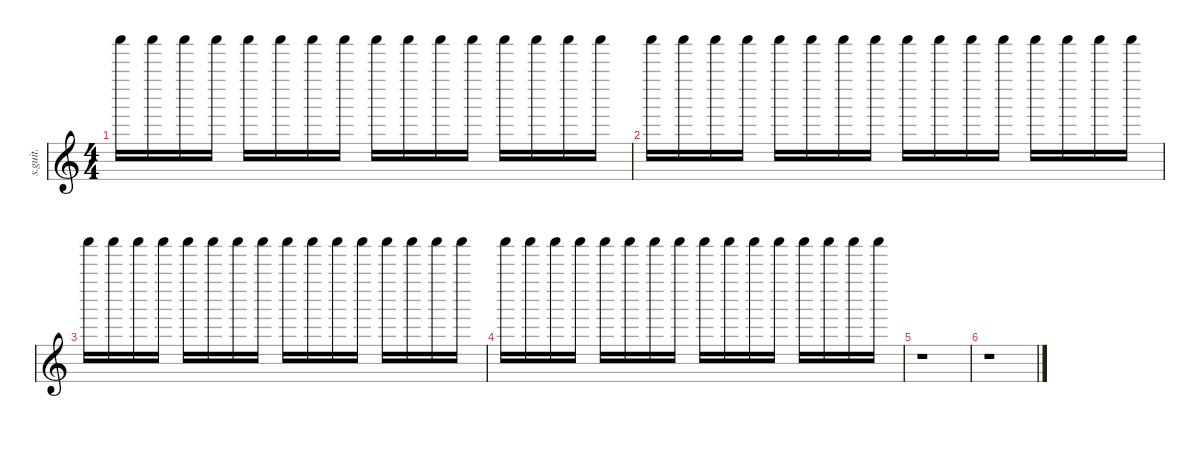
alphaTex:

\defaultSystemsLayout 4
\hideDynamics
\bracketExtendMode nobrackets
\track ("Shaker" "s.guit.") {instrument percussion}
\staff {score}
\articulation defaults
\ts (4 4)
\tempo (69 hide)
\clef g2
\ks c "Shaker (hit)".16{lyrics (0 "") lyrics (1 "") lyrics (2 "") lyrics (3 "") lyrics (4 "") dy mp} "Shaker (hit)".16{lyrics (0 "") lyrics (1 "") lyrics (2 "") lyrics (3 "") lyrics (4 "")} "Shaker (hit)".16{lyrics (0 "") lyrics (1 "") lyrics (2 "") lyrics (3 "") lyrics (4 "")} "Shaker (hit)".16{lyrics (0 "") lyrics (1 "") lyrics (2 "") lyrics (3 "") lyrics (4 "")} "Shaker (hit)".16{lyrics (0 "") lyrics (1 "") lyrics (2 "") lyrics (3 "") lyrics (4 "")} "Shaker (hit)".16{lyrics (0 "") lyrics (1 "") lyrics (2 "") lyrics (3 "") lyrics (4 "")} "Shaker (hit)".16{lyrics (0 "") lyrics (1 "") lyrics (2 "") lyrics (3 "") lyrics (4 "")} "Shaker (hit)".16{lyrics (0 "") lyrics (1 "") lyrics (2 "") lyrics (3 "") lyrics (4 "")} "Shaker (hit)".16{lyrics (0 "") lyrics (1 "") lyrics (2 "") lyrics (3 "") lyrics (4 "")} "Shaker (hit)".16{lyrics (0 "") lyrics (1 "") lyrics (2 "") lyrics (3 "") lyrics (4 "")} "Shaker (hit)".16{lyrics (0 "") lyrics (1 "") lyrics (2 "") lyrics (3 "") lyrics (4 "")} "Shaker (hit)".16{lyrics (0 "") lyrics (1 "") lyrics (2 "") lyrics (3 "") lyrics (4 "")} "Shaker (hit)".16{lyrics (0 "") lyrics (1 "") lyrics (2 "") lyrics (3 "") lyrics (4 "")} "Shaker (hit)".16{lyrics (0 "") lyrics (1 "") lyrics (2 "") lyrics (3 "") lyrics (4 "")} "Shaker (hit)".16{lyrics (0 "") lyrics (1 "") lyrics (2 "") lyrics (3 "") lyrics (4 "")} "Shaker (hit)".16{lyrics (0 "") lyrics (1 "") lyrics (2 "") lyrics (3 "") lyrics (4 "")}
|
"Shaker (hit)".16{lyrics (0 "") lyrics (1 "") lyrics (2 "") lyrics (3 "") lyrics (4 "")} "Shaker (hit)".16{lyrics (0 "") lyrics (1 "") lyrics (2 "") lyrics (3 "") lyrics (4 "")} "Shaker (hit)".16{lyrics (0 "") lyrics (1 "") lyrics (2 "") lyrics (3 "") lyrics (4 "")} "Shaker (hit)".16{lyrics (0 "") lyrics (1 "") lyrics (2 "") lyrics (3 "") lyrics (4 "")} "Shaker (hit)".16{lyrics (0 "") lyrics (1 "") lyrics (2 "") lyrics (3 "") lyrics (4 "")} "Shaker (hit)".16{lyrics (0 "") lyrics (1 "") lyrics (2 "") lyrics (3 "") lyrics (4 "")} "Shaker (hit)".16{lyrics (0 "") lyrics (1 "") lyrics (2 "") lyrics (3 "") lyrics (4 "")} "Shaker (hit)".16{lyrics (0 "") lyrics (1 "") lyrics (2 "") lyrics (3 "") lyrics (4 "")} "Shaker (hit)".16{lyrics (0 "") lyrics (1 "") lyrics (2 "") lyrics (3 "") lyrics (4 "")} "Shaker (hit)".16{lyrics (0 "") lyrics (1 "") lyrics (2 "") lyrics (3 "") lyrics (4 "")} "Shaker (hit)".16{lyrics (0 "") lyrics (1 "") lyrics (2 "") lyrics (3 "") lyrics (4 "")} "Shaker (hit)".16{lyrics (0 "") lyrics (1 "") lyrics (2 "") lyrics (3 "") lyrics (4 "")} "Shaker (hit)".16{lyrics (0 "") lyrics (1 "") lyrics (2 "") lyrics (3 "") lyrics (4 "")} "Shaker (hit)".16{lyrics (0 "") lyrics (1 "") lyrics (2 "") lyrics (3 "") lyrics (4 "")} "Shaker (hit)".16{lyrics (0 "") lyrics (1 "") lyrics (2 "") lyrics (3 "") lyrics (4 "")} "Shaker (hit)".16{lyrics (0 "") lyrics (1 "") lyrics (2 "") lyrics (3 "") lyrics (4 "")} |
"Shaker (hit)".16{lyrics (0 "") lyrics (1 "") lyrics (2 "") lyrics (3 "") lyrics (4 "")} "Shaker (hit)".16{lyrics (0 "") lyrics (1 "") lyrics (2 "") lyrics (3 "") lyrics (4 "")} "Shaker (hit)".16{lyrics (0 "") lyrics (1 "") lyrics (2 "") lyrics (3 "") lyrics (4 "")} "Shaker (hit)".16{lyrics (0 "") lyrics (1 "") lyrics (2 "") lyrics (3 "") lyrics (4 "")} "Shaker (hit)".16{lyrics (0 "") lyrics (1 "") lyrics (2 "") lyrics (3 "") lyrics (4 "")} "Shaker (hit)".16{lyrics (0 "") lyrics (1 "") lyrics (2 "") lyrics (3 "") lyrics (4 "")} "Shaker (hit)".16{lyrics (0 "") lyrics (1 "") lyrics (2 "") lyrics (3 "") lyrics (4 "")} "Shaker (hit)".16{lyrics (0 "") lyrics (1 "") lyrics (2 "") lyrics (3 "") lyrics (4 "")} "Shaker (hit)".16{lyrics (0 "") lyrics (1 "") lyrics (2 "") lyrics (3 "") lyrics (4 "")} "Shaker (hit)".16{lyrics (0 "") lyrics (1 "") lyrics (2 "") lyrics (3 "") lyrics (4 "")} "Shaker (hit)".16{lyrics (0 "") lyrics (1 "") lyrics (2 "") lyrics (3 "") lyrics (4 "")} "Shaker (hit)".16{lyrics (0 "") lyrics (1 "") lyrics (2 "") lyrics (3 "") lyrics (4 "")} "Shaker (hit)".16{lyrics (0 "") lyrics (1 "") lyrics (2 "") lyrics (3 "") lyrics (4 "")} "Shaker (hit)".16{lyrics (0 "") lyrics (1 "") lyrics (2 "") lyrics (3 "") lyrics (4 "")} "Shaker (hit)".16{lyrics (0 "") lyrics (1 "") lyrics (2 "") lyrics (3 "") lyrics (4 "")} "Shaker (hit)".16{lyrics (0 "") lyrics (1 "") lyrics (2 "") lyrics (3 "") lyrics (4 "")} |
"Shaker (hit)".16{lyrics (0 "") lyrics (1 "") lyrics (2 "") lyrics (3 "") lyrics (4 "")} "Shaker (hit)".16{lyrics (0 "") lyrics (1 "") lyrics (2 "") lyrics (3 "") lyrics (4 "")} "Shaker (hit)".16{lyrics (0 "") lyrics (1 "") lyrics (2 "") lyrics (3 "") lyrics (4 "")} "Shaker (hit)".16{lyrics (0 "") lyrics (1 "") lyrics (2 "") lyrics (3 "") lyrics (4 "")} "Shaker (hit)".16{lyrics (0 "") lyrics (1 "") lyrics (2 "") lyrics (3 "") lyrics (4 "")} "Shaker (hit)".16{lyrics (0 "") lyrics (1 "") lyrics (2 "") lyrics (3 "") lyrics (4 "")} "Shaker (hit)".16{lyrics (0 "") lyrics (1 "") lyrics (2 "") lyrics (3 "") lyrics (4 "")} "Shaker (hit)".16{lyrics (0 "") lyrics (1 "") lyrics (2 "") lyrics (3 "") lyrics (4 "")} "Shaker (hit)".16{lyrics (0 "") lyrics (1 "") lyrics (2 "") lyrics (3 "") lyrics (4 "")} "Shaker (hit)".16{lyrics (0 "") lyrics (1 "") lyrics (2 "") lyrics (3 "") lyrics (4 "")} "Shaker (hit)".16{lyrics (0 "") lyrics (1 "") lyrics (2 "") lyrics (3 "") lyrics (4 "")} "Shaker (hit)".16{lyrics (0 "") lyrics (1 "") lyrics (2 "") lyrics (3 "") lyrics (4 "")} "Shaker (hit)".16{lyrics (0 "") lyrics (1 "") lyrics (2 "") lyrics (3 "") lyrics (4 "")} "Shaker (hit)".16{lyrics (0 "") lyrics (1 "") lyrics (2 "") lyrics (3 "") lyrics (4 "")} "Shaker (hit)".16{lyrics (0 "") lyrics (1 "") lyrics (2 "") lyrics (3 "") lyrics (4 "")} "Shaker (hit)".16{lyrics (0 "") lyrics (1 "") lyrics (2 "") lyrics (3 "") lyrics (4 "")} |
r.1 |
r.1
